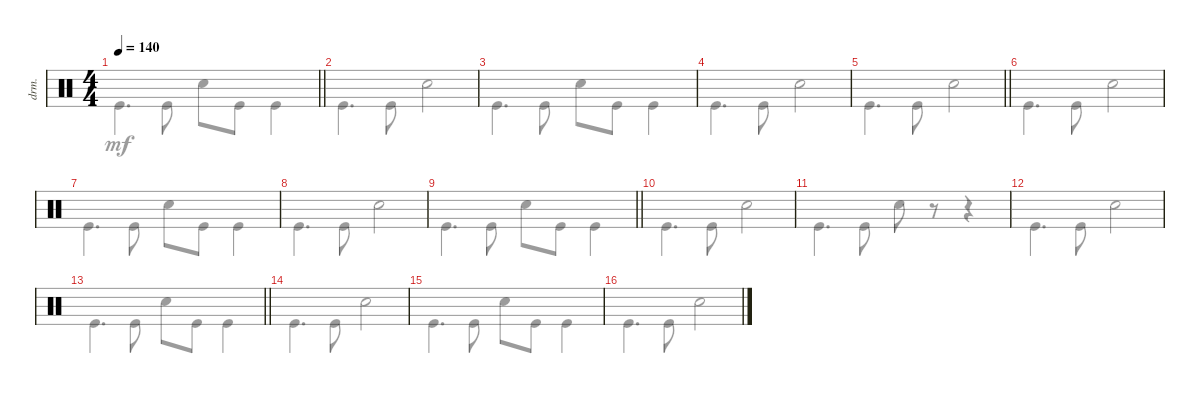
\defaultSystemsLayout 4
\bracketExtendMode groupsimilarinstruments
\otherSystemsTrackNameOrientation horizontal
\chordDiagramsInScore
\track ("Drumkit" "drm.") {instrument percussion}
\staff {score}
\articulation defaults
\voice
\ts (4 4)
\tempo 140
\clef neutral
\barLineRight lightlight
\ks c
|
|
|
|
\barLineRight lightlight
|
|
|
|
\barLineRight lightlight
|
|
|
|
\barLineRight lightlight
|
|
|
\voice
\clef neutral
\barLineRight lightlight
\ks c "Kick (hit)".4{d dy mf} "Kick (hit)".8 "Snare (hit) 2".8 "Kick (hit)".8 "Kick (hit)".4
|
"Kick (hit)".4{d} "Kick (hit)".8 "Snare (hit) 2".2 |
"Kick (hit)".4{d} "Kick (hit)".8 "Snare (hit) 2".8 "Kick (hit)".8 "Kick (hit)".4 |
"Kick (hit)".4{d} "Kick (hit)".8 "Snare (hit) 2".2 |
\barLineRight lightlight "Kick (hit)".4{d} "Kick (hit)".8 "Snare (hit) 2".2
|
"Kick (hit)".4{d} "Kick (hit)".8 "Snare (hit) 2".2 |
"Kick (hit)".4{d} "Kick (hit)".8 "Snare (hit) 2".8 "Kick (hit)".8 "Kick (hit)".4 |
"Kick (hit)".4{d} "Kick (hit)".8 "Snare (hit) 2".2 |
\barLineRight lightlight "Kick (hit)".4{d} "Kick (hit)".8 "Snare (hit) 2".8 "Kick (hit)".8 "Kick (hit)".4
|
"Kick (hit)".4{d} "Kick (hit)".8 "Snare (hit) 2".2 |
"Kick (hit)".4{d} "Kick (hit)".8 "Snare (hit) 2".8 r.8 r.4 |
"Kick (hit)".4{d} "Kick (hit)".8 "Snare (hit) 2".2 |
\barLineRight lightlight "Kick (hit)".4{d} "Kick (hit)".8 "Snare (hit) 2".8 "Kick (hit)".8 "Kick (hit)".4
|
"Kick (hit)".4{d} "Kick (hit)".8 "Snare (hit) 2".2 |
"Kick (hit)".4{d} "Kick (hit)".8 "Snare (hit) 2".8 "Kick (hit)".8 "Kick (hit)".4 |
"Kick (hit)".4{d} "Kick (hit)".8 "Snare (hit) 2".2
